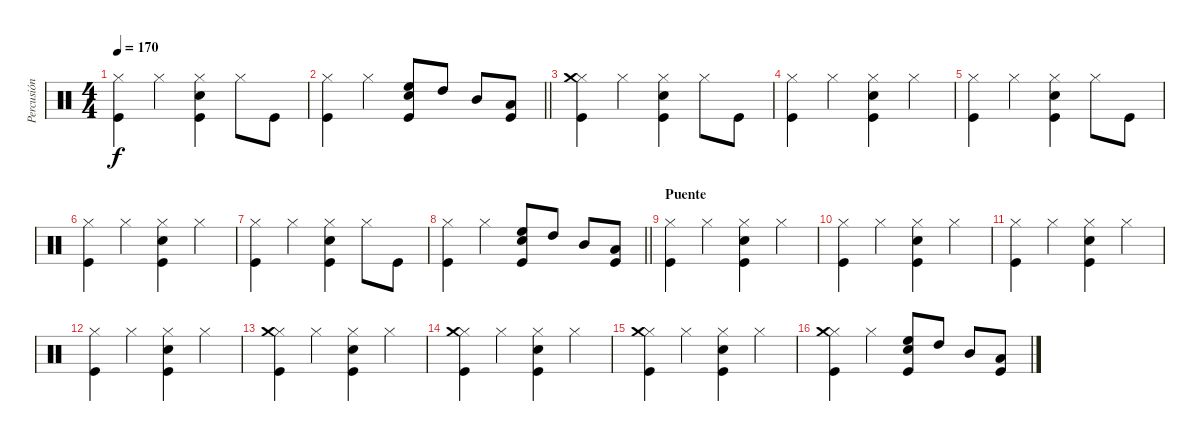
\track ("Percusión" "Percusión") {instrument percussion}
\staff {score}
\articulation defaults
\ts (4 4)
\tempo 170
\clef neutral
\ks c
("Hi-Hat (closed)" "Kick (hit)").4{dy f} "Hi-Hat (closed)".4 ("Hi-Hat (closed)" "Snare (hit) 2" "Kick (hit)").4 "Hi-Hat (closed)".8 "Kick (hit)".8 |
\barLineRight lightlight
("Hi-Hat (closed)" "Kick (hit)").4 "Hi-Hat (closed)".4 ("High Floor Tom (hit)" "Snare (hit) 2" "Kick (hit)").8 "High Tom (hit)".8 "Mid Tom (hit)".8 ("Low Tom (hit)" "Kick (hit)").8 |
("Hi-Hat (closed)" "Crash medium (hit)" "Kick (hit)").4 "Hi-Hat (closed)".4 ("Hi-Hat (closed)" "Snare (hit) 2" "Kick (hit)").4 "Hi-Hat (closed)".8 "Kick (hit)".8 |
("Hi-Hat (closed)" "Kick (hit)").4 "Hi-Hat (closed)".4 ("Hi-Hat (closed)" "Snare (hit) 2" "Kick (hit)").4 "Hi-Hat (closed)".4 |
("Hi-Hat (closed)" "Kick (hit)").4 "Hi-Hat (closed)".4 ("Hi-Hat (closed)" "Snare (hit) 2" "Kick (hit)").4 "Hi-Hat (closed)".8 "Kick (hit)".8 |
("Hi-Hat (closed)" "Kick (hit)").4 "Hi-Hat (closed)".4 ("Hi-Hat (closed)" "Snare (hit) 2" "Kick (hit)").4 "Hi-Hat (closed)".4 |
("Hi-Hat (closed)" "Kick (hit)").4 "Hi-Hat (closed)".4 ("Hi-Hat (closed)" "Snare (hit) 2" "Kick (hit)").4 "Hi-Hat (closed)".8 "Kick (hit)".8 |
\barLineRight lightlight
("Hi-Hat (closed)" "Kick (hit)").4 "Hi-Hat (closed)".4 ("High Floor Tom (hit)" "Snare (hit) 2" "Kick (hit)").8 "High Tom (hit)".8 "Mid Tom (hit)".8 ("Low Tom (hit)" "Kick (hit)").8 |
\section ("" "Puente")
("Hi-Hat (closed)" "Kick (hit)").4 "Hi-Hat (closed)".4 ("Hi-Hat (closed)" "Snare (hit) 2" "Kick (hit)").4 "Hi-Hat (closed)".4 |
("Hi-Hat (closed)" "Kick (hit)").4 "Hi-Hat (closed)".4 ("Hi-Hat (closed)" "Snare (hit) 2" "Kick (hit)").4 "Hi-Hat (closed)".4 |
("Hi-Hat (closed)" "Kick (hit)").4 "Hi-Hat (closed)".4 ("Hi-Hat (closed)" "Snare (hit) 2" "Kick (hit)").4 "Hi-Hat (closed)".4 |
("Hi-Hat (closed)" "Kick (hit)").4 "Hi-Hat (closed)".4 ("Hi-Hat (closed)" "Snare (hit) 2" "Kick (hit)").4 "Hi-Hat (closed)".4 |
("Hi-Hat (closed)" "Crash medium (hit)" "Kick (hit)").4 "Hi-Hat (closed)".4 ("Hi-Hat (closed)" "Snare (hit) 2" "Kick (hit)").4 "Hi-Hat (closed)".4 |
("Hi-Hat (closed)" "Crash medium (hit)" "Kick (hit)").4 "Hi-Hat (closed)".4 ("Hi-Hat (closed)" "Snare (hit) 2" "Kick (hit)").4 "Hi-Hat (closed)".4 |
("Hi-Hat (closed)" "Crash medium (hit)" "Kick (hit)").4 "Hi-Hat (closed)".4 ("Hi-Hat (closed)" "Snare (hit) 2" "Kick (hit)").4 "Hi-Hat (closed)".4 |
("Hi-Hat (closed)" "Crash medium (hit)" "Kick (hit)").4 "Hi-Hat (closed)".4 ("High Floor Tom (hit)" "Snare (hit) 2" "Kick (hit)").8 "High Tom (hit)".8 "Mid Tom (hit)".8 ("Low Tom (hit)" "Kick (hit)").8
